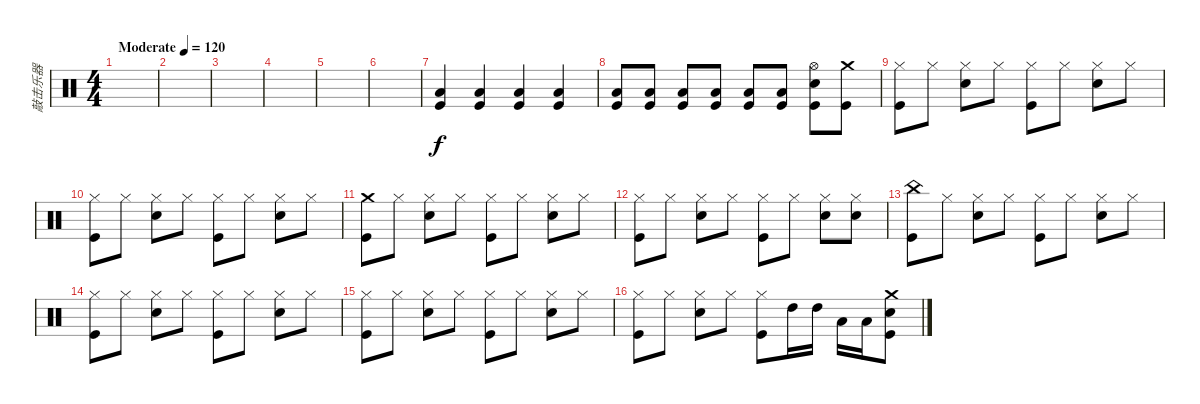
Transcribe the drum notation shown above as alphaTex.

\track ("敲击乐器" "敲击乐器") {instrument percussion}
\staff {score}
\articulation defaults
\ts (4 4)
\tempo (120 "Moderate")
\clef neutral
\ks c
|
|
|
|
|
|
("Low Floor Tom (hit)" "Kick (hit)").4 ("Low Floor Tom (hit)" "Kick (hit)").4 ("Low Floor Tom (hit)" "Kick (hit)").4 ("Low Floor Tom (hit)" "Kick (hit)").4 |
("Low Floor Tom (hit)" "Kick (hit)").8 ("Low Floor Tom (hit)" "Kick (hit)").8 ("Low Floor Tom (hit)" "Kick (hit)").8 ("Low Floor Tom (hit)" "Kick (hit)").8 ("Low Floor Tom (hit)" "Kick (hit)").8 ("Low Floor Tom (hit)" "Kick (hit)").8 ("Snare (hit) 2" "Kick (hit)" "Hi-Hat (open)").8{dy f} ("Crash medium (hit)" "Kick (hit)").8 |
("Kick (hit)" "Hi-Hat (closed)").8 "Hi-Hat (closed)".8 ("Snare (hit) 2" "Hi-Hat (closed)").8 "Hi-Hat (closed)".8 ("Kick (hit)" "Hi-Hat (closed)").8 "Hi-Hat (closed)".8 ("Snare (hit) 2" "Hi-Hat (closed)").8 "Hi-Hat (closed)".8 |
("Kick (hit)" "Hi-Hat (closed)").8 "Hi-Hat (closed)".8 ("Snare (hit) 2" "Hi-Hat (closed)").8 "Hi-Hat (closed)".8 ("Kick (hit)" "Hi-Hat (closed)").8 "Hi-Hat (closed)".8 ("Snare (hit) 2" "Hi-Hat (closed)").8 "Hi-Hat (closed)".8 |
("Kick (hit)" "Crash medium (hit)").8 "Hi-Hat (closed)".8 ("Snare (hit) 2" "Hi-Hat (closed)").8 "Hi-Hat (closed)".8 ("Kick (hit)" "Hi-Hat (closed)").8 "Hi-Hat (closed)".8 ("Snare (hit) 2" "Hi-Hat (closed)").8 "Hi-Hat (closed)".8 |
("Kick (hit)" "Hi-Hat (closed)").8 "Hi-Hat (closed)".8 ("Snare (hit) 2" "Hi-Hat (closed)").8 "Hi-Hat (closed)".8 ("Kick (hit)" "Hi-Hat (closed)").8 "Hi-Hat (closed)".8 ("Snare (hit) 2" "Hi-Hat (closed)").8 ("Hi-Hat (closed)" "Snare (hit) 2").8 |
("Kick (hit)" "China (hit)").8 "Hi-Hat (closed)".8 ("Snare (hit) 2" "Hi-Hat (closed)").8 "Hi-Hat (closed)".8 ("Kick (hit)" "Hi-Hat (closed)").8 "Hi-Hat (closed)".8 ("Snare (hit) 2" "Hi-Hat (closed)").8 "Hi-Hat (closed)".8 |
("Kick (hit)" "Hi-Hat (closed)").8 "Hi-Hat (closed)".8 ("Snare (hit) 2" "Hi-Hat (closed)").8 "Hi-Hat (closed)".8 ("Kick (hit)" "Hi-Hat (closed)").8 "Hi-Hat (closed)".8 ("Snare (hit) 2" "Hi-Hat (closed)").8 "Hi-Hat (closed)".8 |
("Kick (hit)" "Hi-Hat (closed)").8 "Hi-Hat (closed)".8 ("Snare (hit) 2" "Hi-Hat (closed)").8 "Hi-Hat (closed)".8 ("Kick (hit)" "Hi-Hat (closed)").8 "Hi-Hat (closed)".8 ("Snare (hit) 2" "Hi-Hat (closed)").8 "Hi-Hat (closed)".8 |
("Kick (hit)" "Hi-Hat (closed)").8 "Hi-Hat (closed)".8 ("Snare (hit) 2" "Hi-Hat (closed)").8 "Hi-Hat (closed)".8 ("Kick (hit)" "Hi-Hat (closed)").8 "High Tom (hit)".16 "High Tom (hit)".16 "Low Tom (hit)".16 "Low Tom (hit)".16 ("Kick (hit)" "Crash medium (hit)" "Snare (hit) 2").8
